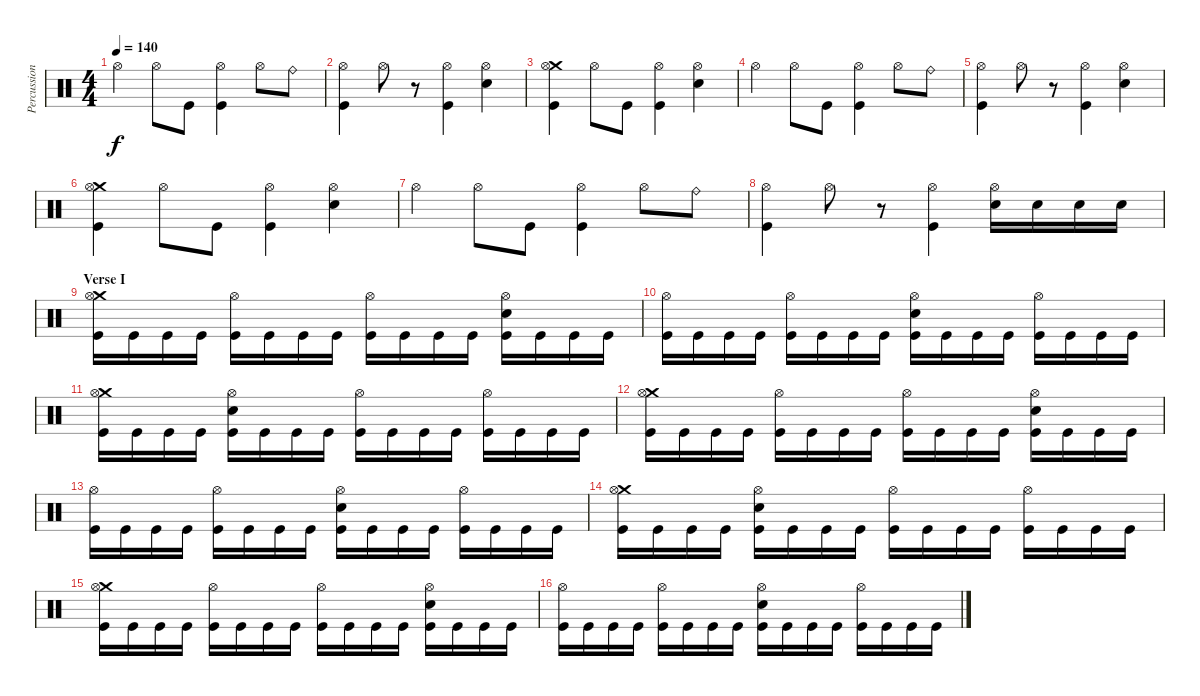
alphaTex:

\track ("Percussion" "Percussion") {instrument percussion}
\staff {score}
\articulation defaults
\ts (4 4)
\tempo 140
\clef neutral
\ks c "Hi-Hat (open)".4{dy f} "Hi-Hat (open)".8 "Kick (hit)".8
("Hi-Hat (open)" "Kick (hit)").4 "Hi-Hat (open)".8 "Ride (bell)".8 |
("Hi-Hat (open)" "Kick (hit)").4 "Hi-Hat (open)".8 r.8 ("Hi-Hat (open)" "Kick (hit)").4 ("Hi-Hat (open)" "Electric Snare (hit)").4 |
("Crash medium (hit)" "Hi-Hat (open)" "Kick (hit)").4 "Hi-Hat (open)".8 "Kick (hit)".8 ("Hi-Hat (open)" "Kick (hit)").4 ("Hi-Hat (open)" "Electric Snare (hit)").4 |
"Hi-Hat (open)".4 "Hi-Hat (open)".8 "Kick (hit)".8 ("Hi-Hat (open)" "Kick (hit)").4 "Hi-Hat (open)".8 "Ride (bell)".8 |
("Hi-Hat (open)" "Kick (hit)").4 "Hi-Hat (open)".8 r.8 ("Hi-Hat (open)" "Kick (hit)").4 ("Hi-Hat (open)" "Electric Snare (hit)").4 |
("Crash medium (hit)" "Hi-Hat (open)" "Kick (hit)").4 "Hi-Hat (open)".8 "Kick (hit)".8 ("Hi-Hat (open)" "Kick (hit)").4 ("Hi-Hat (open)" "Electric Snare (hit)").4 |
"Hi-Hat (open)".4 "Hi-Hat (open)".8 "Kick (hit)".8 ("Hi-Hat (open)" "Kick (hit)").4 "Hi-Hat (open)".8 "Ride (bell)".8 |
("Hi-Hat (open)" "Kick (hit)").4 "Hi-Hat (open)".8 r.8 ("Hi-Hat (open)" "Kick (hit)").4 ("Hi-Hat (open)" "Electric Snare (hit)").16 "Electric Snare (hit)".16 "Electric Snare (hit)".16 "Electric Snare (hit)".16 |
\section ("" "Verse I")
("Crash medium (hit)" "Hi-Hat (open)" "Kick (hit)").16 "Kick (hit)".16 "Kick (hit)".16 "Kick (hit)".16 ("Hi-Hat (open)" "Kick (hit)").16 "Kick (hit)".16 "Kick (hit)".16 "Kick (hit)".16 ("Hi-Hat (open)" "Kick (hit)").16 "Kick (hit)".16 "Kick (hit)".16 "Kick (hit)".16 ("Electric Snare (hit)" "Hi-Hat (open)" "Kick (hit)").16 "Kick (hit)".16 "Kick (hit)".16 "Kick (hit)".16 |
("Hi-Hat (open)" "Kick (hit)").16 "Kick (hit)".16 "Kick (hit)".16 "Kick (hit)".16 ("Hi-Hat (open)" "Kick (hit)").16 "Kick (hit)".16 "Kick (hit)".16 "Kick (hit)".16 ("Electric Snare (hit)" "Hi-Hat (open)" "Kick (hit)").16 "Kick (hit)".16 "Kick (hit)".16 "Kick (hit)".16 ("Hi-Hat (open)" "Kick (hit)").16 "Kick (hit)".16 "Kick (hit)".16 "Kick (hit)".16 |
("Crash medium (hit)" "Hi-Hat (open)" "Kick (hit)").16 "Kick (hit)".16 "Kick (hit)".16 "Kick (hit)".16 ("Electric Snare (hit)" "Hi-Hat (open)" "Kick (hit)").16 "Kick (hit)".16 "Kick (hit)".16 "Kick (hit)".16 ("Hi-Hat (open)" "Kick (hit)").16 "Kick (hit)".16 "Kick (hit)".16 "Kick (hit)".16 ("Hi-Hat (open)" "Kick (hit)").16 "Kick (hit)".16 "Kick (hit)".16 "Kick (hit)".16 |
("Crash medium (hit)" "Hi-Hat (open)" "Kick (hit)").16 "Kick (hit)".16 "Kick (hit)".16 "Kick (hit)".16 ("Hi-Hat (open)" "Kick (hit)").16 "Kick (hit)".16 "Kick (hit)".16 "Kick (hit)".16 ("Hi-Hat (open)" "Kick (hit)").16 "Kick (hit)".16 "Kick (hit)".16 "Kick (hit)".16 ("Electric Snare (hit)" "Hi-Hat (open)" "Kick (hit)").16 "Kick (hit)".16 "Kick (hit)".16 "Kick (hit)".16 |
("Hi-Hat (open)" "Kick (hit)").16 "Kick (hit)".16 "Kick (hit)".16 "Kick (hit)".16 ("Hi-Hat (open)" "Kick (hit)").16 "Kick (hit)".16 "Kick (hit)".16 "Kick (hit)".16 ("Electric Snare (hit)" "Hi-Hat (open)" "Kick (hit)").16 "Kick (hit)".16 "Kick (hit)".16 "Kick (hit)".16 ("Hi-Hat (open)" "Kick (hit)").16 "Kick (hit)".16 "Kick (hit)".16 "Kick (hit)".16 |
("Crash medium (hit)" "Hi-Hat (open)" "Kick (hit)").16 "Kick (hit)".16 "Kick (hit)".16 "Kick (hit)".16 ("Electric Snare (hit)" "Hi-Hat (open)" "Kick (hit)").16 "Kick (hit)".16 "Kick (hit)".16 "Kick (hit)".16 ("Hi-Hat (open)" "Kick (hit)").16 "Kick (hit)".16 "Kick (hit)".16 "Kick (hit)".16 ("Hi-Hat (open)" "Kick (hit)").16 "Kick (hit)".16 "Kick (hit)".16 "Kick (hit)".16 |
("Crash medium (hit)" "Hi-Hat (open)" "Kick (hit)").16 "Kick (hit)".16 "Kick (hit)".16 "Kick (hit)".16 ("Hi-Hat (open)" "Kick (hit)").16 "Kick (hit)".16 "Kick (hit)".16 "Kick (hit)".16 ("Hi-Hat (open)" "Kick (hit)").16 "Kick (hit)".16 "Kick (hit)".16 "Kick (hit)".16 ("Electric Snare (hit)" "Hi-Hat (open)" "Kick (hit)").16 "Kick (hit)".16 "Kick (hit)".16 "Kick (hit)".16 |
("Hi-Hat (open)" "Kick (hit)").16 "Kick (hit)".16 "Kick (hit)".16 "Kick (hit)".16 ("Hi-Hat (open)" "Kick (hit)").16 "Kick (hit)".16 "Kick (hit)".16 "Kick (hit)".16 ("Electric Snare (hit)" "Hi-Hat (open)" "Kick (hit)").16 "Kick (hit)".16 "Kick (hit)".16 "Kick (hit)".16 ("Hi-Hat (open)" "Kick (hit)").16 "Kick (hit)".16 "Kick (hit)".16 "Kick (hit)".16
